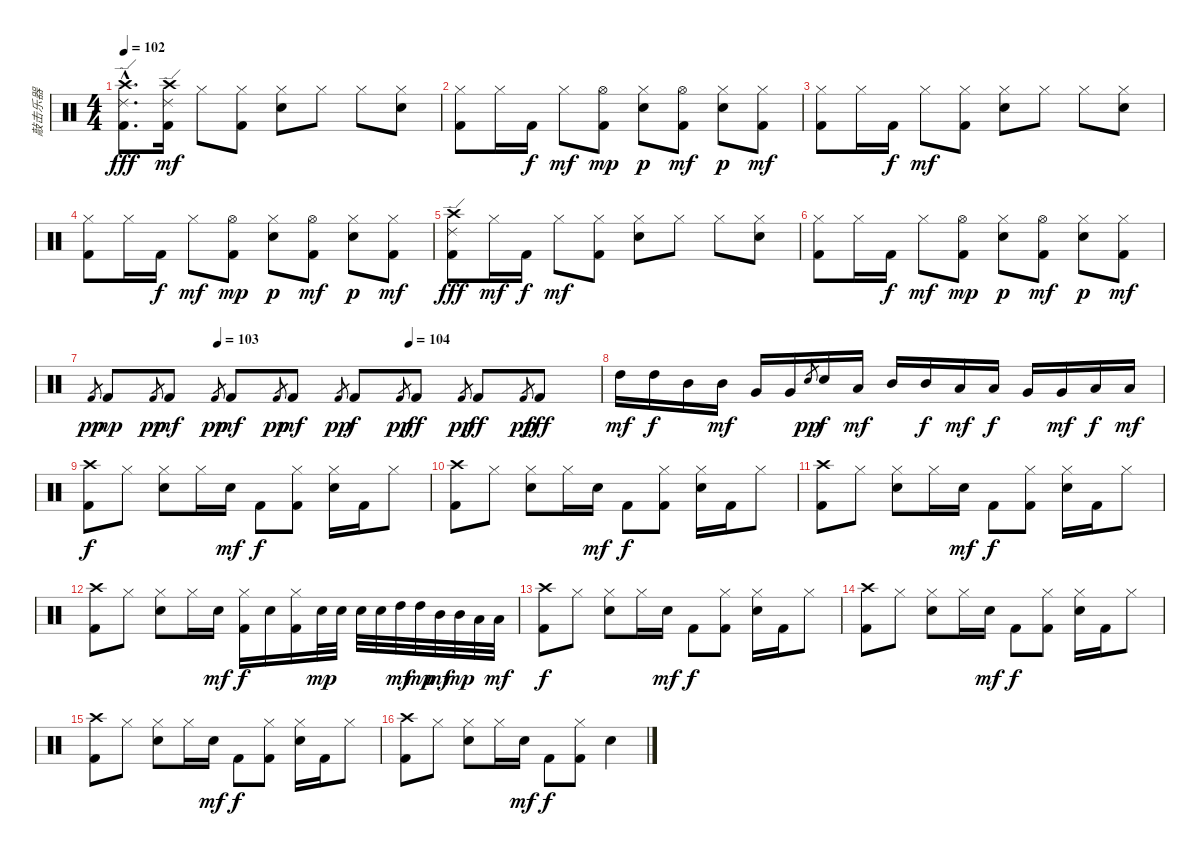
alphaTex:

\track ("敲击乐器" "敲击乐器") {instrument percussion}
\staff {score}
\articulation defaults
\ts (4 4)
\tempo 102
\clef neutral
\ks c
("Crash high (hit)"{hac} "Ride (edge) 2"{hac} "Kick (hit) 2"{hac}).8{d dy fff} ("Crash high (hit)" "Ride (edge) 2" "Kick (hit) 2").16{dy mf} "Hi-Hat (closed)".8 ("Hi-Hat (closed)" "Kick (hit) 2").8 ("Hi-Hat (closed)" "Electric Snare (hit)").8 "Hi-Hat (closed)".8 "Hi-Hat (closed)".8 ("Hi-Hat (closed)" "Electric Snare (hit)").8 |
("Hi-Hat (closed)" "Kick (hit) 2").8 "Hi-Hat (closed)".16 "Kick (hit) 2".16{dy f} "Hi-Hat (closed)".8{dy mf} ("Hi-Hat (open)" "Kick (hit) 2").8{dy mp} ("Hi-Hat (closed)" "Electric Snare (hit)").8{dy p} ("Hi-Hat (open)" "Kick (hit) 2").8{dy mf} ("Hi-Hat (closed)" "Electric Snare (hit)").8{dy p} ("Hi-Hat (closed)" "Kick (hit) 2").8{dy mf} |
("Hi-Hat (closed)" "Kick (hit) 2").8 "Hi-Hat (closed)".16 "Kick (hit) 2".16{dy f} "Hi-Hat (closed)".8{dy mf} ("Hi-Hat (closed)" "Kick (hit) 2").8 ("Hi-Hat (closed)" "Electric Snare (hit)").8 "Hi-Hat (closed)".8 "Hi-Hat (closed)".8 ("Hi-Hat (closed)" "Electric Snare (hit)").8 |
("Hi-Hat (closed)" "Kick (hit) 2").8 "Hi-Hat (closed)".16 "Kick (hit) 2".16{dy f} "Hi-Hat (closed)".8{dy mf} ("Hi-Hat (open)" "Kick (hit) 2").8{dy mp} ("Hi-Hat (closed)" "Electric Snare (hit)").8{dy p} ("Hi-Hat (open)" "Kick (hit) 2").8{dy mf} ("Hi-Hat (closed)" "Electric Snare (hit)").8{dy p} ("Hi-Hat (closed)" "Kick (hit) 2").8{dy mf} |
("Crash high (hit)" "Ride (edge) 2" "Kick (hit) 2").8{dy fff} "Hi-Hat (closed)".16{dy mf} "Kick (hit) 2".16{dy f} "Hi-Hat (closed)".8{dy mf} ("Hi-Hat (closed)" "Kick (hit) 2").8 ("Hi-Hat (closed)" "Electric Snare (hit)").8 "Hi-Hat (closed)".8 "Hi-Hat (closed)".8 ("Hi-Hat (closed)" "Electric Snare (hit)").8 |
("Hi-Hat (closed)" "Kick (hit) 2").8 "Hi-Hat (closed)".16 "Kick (hit) 2".16{dy f} "Hi-Hat (closed)".8{dy mf} ("Hi-Hat (open)" "Kick (hit) 2").8{dy mp} ("Hi-Hat (closed)" "Electric Snare (hit)").8{dy p} ("Hi-Hat (open)" "Kick (hit) 2").8{dy mf} ("Hi-Hat (closed)" "Electric Snare (hit)").8{dy p} ("Hi-Hat (closed)" "Kick (hit) 2").8{dy mf} |
\tempo (103 0.25)
\tempo (104 0.625)
"Kick (hit) 2".8{gr dy pp} "Kick (hit) 2".8{dy mp} "Kick (hit) 2".8{gr dy pp} "Kick (hit) 2".8{dy mf} "Kick (hit) 2".8{gr dy pp} "Kick (hit) 2".8{dy mf} "Kick (hit) 2".8{gr dy pp} "Kick (hit) 2".8{dy mf} "Kick (hit) 2".8{gr dy pp} "Kick (hit) 2".8{dy f} "Kick (hit) 2".8{gr dy pp} "Kick (hit) 2".8{dy ff} "Kick (hit) 2".8{gr dy pp} "Kick (hit) 2".8{dy ff} "Kick (hit) 2".8{gr dy pp} "Kick (hit) 2".8{dy fff} |
"High Tom (hit)".16{dy mf} "High Tom (hit)".16{dy f} "Mid Tom (hit)".16 "Mid Tom (hit)".16{dy mf} "Very Low Tom (hit)".16 "Very Low Tom (hit)".16 "Electric Snare (hit)".8{gr dy pp} "Electric Snare (hit)".16{dy f} "Low Tom (hit)".16{dy mf} "Mid Tom (hit)".16 "Mid Tom (hit)".16{dy f} "Low Tom (hit)".16{dy mf} "Low Tom (hit)".16{dy f} "Very Low Tom (hit)".16 "Very Low Tom (hit)".16{dy mf} "Low Floor Tom (hit)".16{dy f} "Low Floor Tom (hit)".16{dy mf} |
("Crash high (hit)" "Kick (hit) 2").8{dy f} "Hi-Hat (closed)".8 ("Hi-Hat (closed)" "Electric Snare (hit)").8 "Hi-Hat (closed)".16 "Electric Snare (hit)".16{dy mf} "Kick (hit) 2".8{dy f} ("Hi-Hat (closed)" "Kick (hit) 2").8 ("Hi-Hat (closed)" "Electric Snare (hit)").16 "Kick (hit) 2".16 "Hi-Hat (closed)".8 |
("Crash high (hit)" "Kick (hit) 2").8 "Hi-Hat (closed)".8 ("Hi-Hat (closed)" "Electric Snare (hit)").8 "Hi-Hat (closed)".16 "Electric Snare (hit)".16{dy mf} "Kick (hit) 2".8{dy f} ("Hi-Hat (closed)" "Kick (hit) 2").8 ("Hi-Hat (closed)" "Electric Snare (hit)").16 "Kick (hit) 2".16 "Hi-Hat (closed)".8 |
("Crash high (hit)" "Kick (hit) 2").8 "Hi-Hat (closed)".8 ("Hi-Hat (closed)" "Electric Snare (hit)").8 "Hi-Hat (closed)".16 "Electric Snare (hit)".16{dy mf} "Kick (hit) 2".8{dy f} ("Hi-Hat (closed)" "Kick (hit) 2").8 ("Hi-Hat (closed)" "Electric Snare (hit)").16 "Kick (hit) 2".16 "Hi-Hat (closed)".8 |
("Crash high (hit)" "Kick (hit) 2").8 "Hi-Hat (closed)".8 ("Hi-Hat (closed)" "Electric Snare (hit)").8 "Hi-Hat (closed)".16 "Electric Snare (hit)".16{dy mf} ("Hi-Hat (closed)" "Kick (hit) 2").16{dy f} "Electric Snare (hit)".16 ("Hi-Hat (closed)" "Kick (hit) 2").16 "Electric Snare (hit)".32{dy mp} "Electric Snare (hit)".32 "Electric Snare (hit)".32 "Electric Snare (hit)".32 "High Tom (hit)".32{dy mf} "High Tom (hit)".32{dy mp} "Mid Tom (hit)".32{dy mf} "Mid Tom (hit)".32{dy mp} "Low Tom (hit)".32 "Low Tom (hit)".32{dy mf} |
("Crash high (hit)" "Kick (hit) 2").8{dy f} "Hi-Hat (closed)".8 ("Hi-Hat (closed)" "Electric Snare (hit)").8 "Hi-Hat (closed)".16 "Electric Snare (hit)".16{dy mf} "Kick (hit) 2".8{dy f} ("Hi-Hat (closed)" "Kick (hit) 2").8 ("Hi-Hat (closed)" "Electric Snare (hit)").16 "Kick (hit) 2".16 "Hi-Hat (closed)".8 |
("Crash high (hit)" "Kick (hit) 2").8 "Hi-Hat (closed)".8 ("Hi-Hat (closed)" "Electric Snare (hit)").8 "Hi-Hat (closed)".16 "Electric Snare (hit)".16{dy mf} "Kick (hit) 2".8{dy f} ("Hi-Hat (closed)" "Kick (hit) 2").8 ("Hi-Hat (closed)" "Electric Snare (hit)").16 "Kick (hit) 2".16 "Hi-Hat (closed)".8 |
("Crash high (hit)" "Kick (hit) 2").8 "Hi-Hat (closed)".8 ("Hi-Hat (closed)" "Electric Snare (hit)").8 "Hi-Hat (closed)".16 "Electric Snare (hit)".16{dy mf} "Kick (hit) 2".8{dy f} ("Hi-Hat (closed)" "Kick (hit) 2").8 ("Hi-Hat (closed)" "Electric Snare (hit)").16 "Kick (hit) 2".16 "Hi-Hat (closed)".8 |
("Crash high (hit)" "Kick (hit) 2").8 "Hi-Hat (closed)".8 ("Hi-Hat (closed)" "Electric Snare (hit)").8 "Hi-Hat (closed)".16 "Electric Snare (hit)".16{dy mf} "Kick (hit) 2".8{dy f} ("Hi-Hat (closed)" "Kick (hit) 2").8 "Electric Snare (hit)".4
